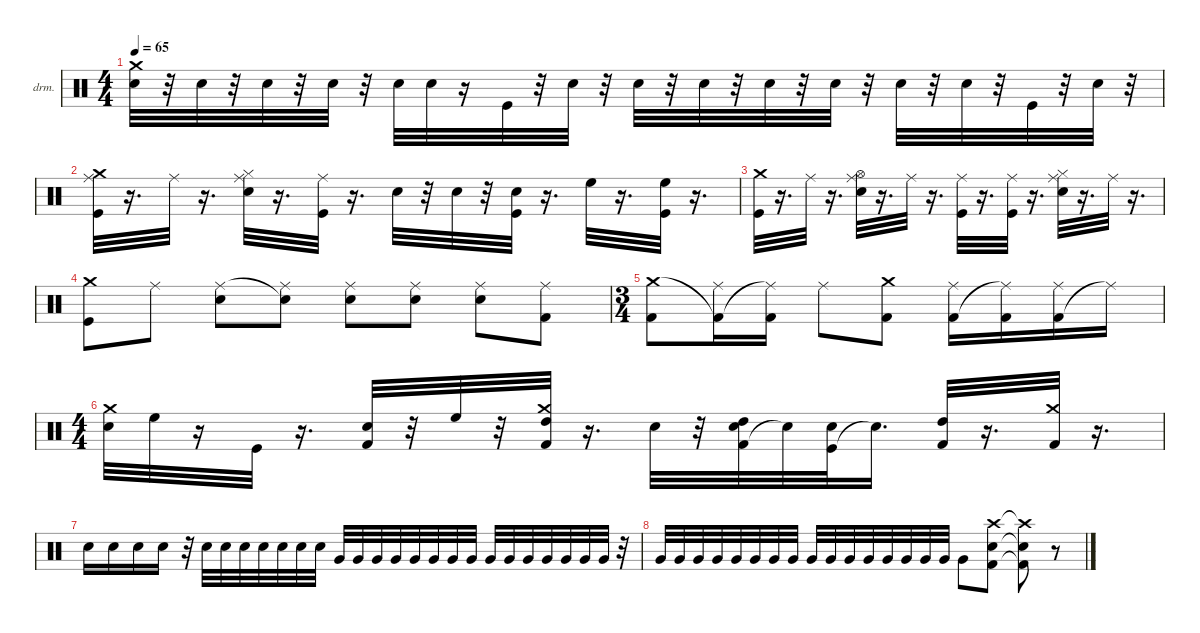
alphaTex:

\hideDynamics
\bracketExtendMode nobrackets
\firstSystemTrackNameOrientation horizontal
\otherSystemsTrackNameOrientation horizontal
\track ("Drums" "drm.") {instrument percussion}
\staff {score}
\articulation defaults
\ts (4 4)
\tempo 65
\clef neutral
\ks aminor
("Electric Snare (hit)" "Crash medium (hit)").32{dy fff beam Down} r.32{beam Down} "Electric Snare (hit)".32{dy f beam Down} r.32{beam Down} "Electric Snare (hit)".32{dy pp beam Down} r.32{beam Down} "Electric Snare (hit)".32{dy mf beam Down} r.32{beam Down} "Electric Snare (hit)".32{dy fff beam Down} "Electric Snare (hit)".32{dy f beam Down} r.16{beam Down} "Kick (hit)".32{beam Up} r.32{beam Up} "Electric Snare (hit)".32{dy pp beam Down} r.32{beam Down} "Electric Snare (hit)".32{dy fff beam Down} r.32{beam Down} "Electric Snare (hit)".32{dy f beam Down} r.32{beam Down} "Electric Snare (hit)".32{dy pp beam Down} r.32{beam Down} "Electric Snare (hit)".32{dy fff beam Down} r.32{beam Down} "Electric Snare (hit)".32{dy mp beam Down} r.32{beam Down} "Electric Snare (hit)".32{dy pp beam Down} r.32{beam Down} "Kick (hit)".32{dy f beam Up} r.32{beam Up} "Electric Snare (hit)".32{dy mp beam Down} r.32{beam Down} |
("Crash medium (hit)" "Kick (hit)" "Ride (middle)"{acc #}).32{dy fff beam Down} r.16{d beam Down} "Ride (middle)"{acc #}.32{dy f beam Down} r.16{d beam Down} ("Electric Snare (hit)" "Hi-Hat (closed)"{acc #} "Ride (middle)"{acc #}).32{dy fff beam Down} r.16{d beam Down} ("Kick (hit)" "Ride (middle)"{acc #}).32{beam Down} r.16{d beam Down} "Electric Snare (hit)".32{dy p beam Down} r.32{beam Down} "Electric Snare (hit)".32{dy pp beam Down} r.32{beam Down} ("Kick (hit)" "Electric Snare (hit)").32{dy f beam Up} r.16{d beam Up} "High Floor Tom (hit)".32{dy fff beam Down} r.16{d beam Down} ("Kick (hit)" "High Floor Tom (hit)").32{dy f beam Up} r.16{d beam Up} |
("Crash medium (hit)" "Kick (hit)").32{dy fff beam Down} r.16{d beam Down} "Ride (middle)"{acc #}.32{dy f beam Down} r.16{d beam Down} ("Electric Snare (hit)" "Hi-Hat (open)"{acc #} "Ride (middle)"{acc #}).32{dy fff beam Down} r.16{d beam Down} "Ride (middle)"{acc #}.32{dy mf beam Down} r.16{d beam Down} ("Kick (hit)" "Ride (middle)"{acc #}).32{dy fff beam Down} r.16{d beam Down} ("Kick (hit)" "Ride (middle)"{acc #}).32{dy f beam Down} r.16{d beam Down} ("Electric Snare (hit)" "Hi-Hat (closed)"{acc #} "Ride (middle)"{acc #}).32{dy fff beam Down} r.16{d beam Down} "Ride (middle)"{acc #}.32{dy mp beam Down} r.16{d beam Down} |
("Kick (hit)" "Crash medium (hit)").8{dy f beam Down} "Ride (middle)"{acc #}.8{dy ff beam Down} ("Ride (middle)"{acc #} "Electric Snare (hit)").8{beam Down} ("Electric Snare (hit)"{t} "Ride (middle)"{acc #}).8{dy f beam Down} ("Snare (hit) 2" "Ride (middle)"{acc #}).8{beam Down} ("Electric Snare (hit)" "Ride (middle)"{acc #}).8{beam Down} ("Electric Snare (hit)" "Ride (middle)"{acc #}).8{beam Down} ("Kick (hit) 2" "Ride (middle)"{acc #}).8{beam Down} |
\ts (3 4)
("Crash medium (hit)" "Kick (hit) 2").8{dy ff beam Down} ("Kick (hit) 2"{t} "Ride (middle)"{acc #}).16{beam Down} ("Ride (middle)"{t acc #} "Kick (hit) 2").16{beam Down} "Ride (middle)"{acc #}.8{beam Down} ("Kick (hit) 2" "Crash medium (hit)").8{beam Down} ("Kick (hit) 2" "Ride (middle)"{acc #}).16{beam Down} ("Ride (middle)"{t acc #} "Kick (hit) 2").16{beam Down} ("Kick (hit) 2" "Ride (middle)"{acc #}).16{beam Down} "Ride (middle)"{t acc #}.16{beam Down} |
\ts (4 4)
("Electric Snare (hit)" "Crash medium (hit)").32{dy fff beam Down} "High Floor Tom (hit)".32{dy f beam Down} r.16{beam Down} "Kick (hit)".32{dy fff beam Up} r.16{d beam Up} ("Kick (hit) 2" "Electric Snare (hit)").32{dy f beam Up} r.32{beam Up} "High Floor Tom (hit)".32{dy mp beam Down} r.32{beam Down} ("Kick (hit) 2" "High Tom (hit)" "Crash medium (hit)").32{dy f beam Down} r.16{d beam Down} "Electric Snare (hit)".32{dy pp beam Down} r.32{beam Down} ("Kick (hit) 2" "High Tom (hit)" "Electric Snare (hit)").32{dy f beam Up} "Electric Snare (hit)"{t}.32{dy fff beam Up} ("Kick (hit)" "Electric Snare (hit)").32{beam Up} "Electric Snare (hit)"{t}.16{d beam Up} ("Kick (hit) 2" "High Tom (hit)").32{dy f beam Up} r.16{d beam Up} ("Crash medium (hit)" "Kick (hit) 2").32{dy fff beam Down} r.16{d beam Down} |
"Snare (hit) 2".16{beam Down} "Snare (hit) 2".16{beam Down} "Snare (hit) 2".16{beam Down} "Snare (hit) 2".16{beam Down} r.32{beam Down} "Snare (hit) 2".32{dy ff beam Down} "Snare (hit) 2".32{beam Down} "Snare (hit) 2".32{beam Down} "Snare (hit) 2".32{beam Down} "Snare (hit) 2".32{beam Down} "Snare (hit) 2".32{beam Down} "Snare (hit) 2".32{beam Down} "Very Low Tom (hit)".32{beam Up} "Very Low Tom (hit)".32{beam Up} "Very Low Tom (hit)".32{beam Up} "Very Low Tom (hit)".32{beam Up} "Very Low Tom (hit)".32{beam Up} "Very Low Tom (hit)".32{beam Up} "Very Low Tom (hit)".32{beam Up} "Very Low Tom (hit)".32{beam Up} "Very Low Tom (hit)".32{beam Up} "Very Low Tom (hit)".32{beam Up} "Very Low Tom (hit)".32{beam Up} "Very Low Tom (hit)".32{beam Up} "Very Low Tom (hit)".32{beam Up} "Very Low Tom (hit)".32{beam Up} "Very Low Tom (hit)".32{beam Up} r.32{beam Up} |
"Very Low Tom (hit)".32{beam Up} "Very Low Tom (hit)".32{beam Up} "Very Low Tom (hit)".32{beam Up} "Very Low Tom (hit)".32{beam Up} "Very Low Tom (hit)".32{beam Up} "Very Low Tom (hit)".32{beam Up} "Very Low Tom (hit)".32{beam Up} "Very Low Tom (hit)".32{beam Up} "Very Low Tom (hit)".32{beam Up} "Very Low Tom (hit)".32{beam Up} "Very Low Tom (hit)".32{beam Up} "Very Low Tom (hit)".32{beam Up} "Very Low Tom (hit)".32{beam Up} "Very Low Tom (hit)".32{beam Up} "Very Low Tom (hit)".32{beam Up} "Very Low Tom (hit)".32{beam Up} "Very Low Tom (hit)".8{beam Down} ("Snare (hit) 2" "Kick (hit) 2" "Crash high (hit)"{acc #}).8{beam Down} ("Snare (hit) 2"{t} "Kick (hit) 2"{t} "Crash high (hit)"{t acc #}).8{beam Down} r.8{beam Down}
